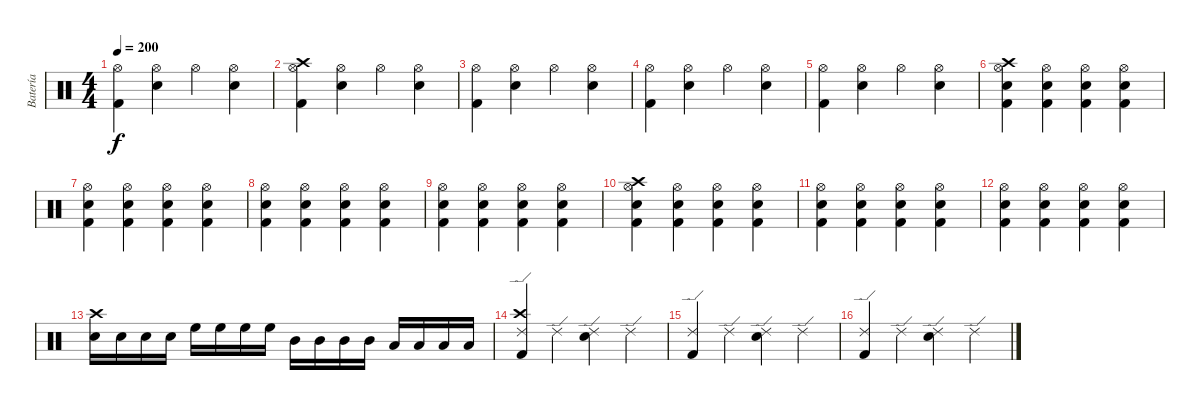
\track ("Batería" "Batería") {instrument percussion}
\staff {score}
\articulation defaults
\ts (4 4)
\tempo 200
\clef neutral
\ks c
("Hi-Hat (open)" "Kick (hit) 2").4{dy f} ("Hi-Hat (open)" "Electric Snare (hit)").4 "Hi-Hat (open)".4 ("Hi-Hat (open)" "Electric Snare (hit)").4 |
("Hi-Hat (open)" "Kick (hit) 2" "Crash high (hit)").4 ("Hi-Hat (open)" "Electric Snare (hit)").4 "Hi-Hat (open)".4 ("Hi-Hat (open)" "Electric Snare (hit)").4 |
("Hi-Hat (open)" "Kick (hit) 2").4 ("Hi-Hat (open)" "Electric Snare (hit)").4 "Hi-Hat (open)".4 ("Hi-Hat (open)" "Electric Snare (hit)").4 |
("Hi-Hat (open)" "Kick (hit) 2").4 ("Hi-Hat (open)" "Electric Snare (hit)").4 "Hi-Hat (open)".4 ("Hi-Hat (open)" "Electric Snare (hit)").4 |
("Hi-Hat (open)" "Kick (hit) 2").4 ("Hi-Hat (open)" "Electric Snare (hit)").4 "Hi-Hat (open)".4 ("Hi-Hat (open)" "Electric Snare (hit)").4 |
("Electric Snare (hit)" "Kick (hit) 2" "Hi-Hat (open)" "Crash high (hit)").4 ("Electric Snare (hit)" "Kick (hit) 2" "Hi-Hat (open)").4 ("Electric Snare (hit)" "Kick (hit) 2" "Hi-Hat (open)").4 ("Electric Snare (hit)" "Kick (hit) 2" "Hi-Hat (open)").4 |
("Electric Snare (hit)" "Kick (hit) 2" "Hi-Hat (open)").4 ("Electric Snare (hit)" "Kick (hit) 2" "Hi-Hat (open)").4 ("Electric Snare (hit)" "Kick (hit) 2" "Hi-Hat (open)").4 ("Electric Snare (hit)" "Kick (hit) 2" "Hi-Hat (open)").4 |
("Electric Snare (hit)" "Kick (hit) 2" "Hi-Hat (open)").4 ("Electric Snare (hit)" "Kick (hit) 2" "Hi-Hat (open)").4 ("Electric Snare (hit)" "Kick (hit) 2" "Hi-Hat (open)").4 ("Electric Snare (hit)" "Kick (hit) 2" "Hi-Hat (open)").4 |
("Electric Snare (hit)" "Kick (hit) 2" "Hi-Hat (open)").4 ("Electric Snare (hit)" "Kick (hit) 2" "Hi-Hat (open)").4 ("Electric Snare (hit)" "Kick (hit) 2" "Hi-Hat (open)").4 ("Electric Snare (hit)" "Kick (hit) 2" "Hi-Hat (open)").4 |
("Electric Snare (hit)" "Kick (hit) 2" "Hi-Hat (open)" "Crash high (hit)").4 ("Electric Snare (hit)" "Kick (hit) 2" "Hi-Hat (open)").4 ("Electric Snare (hit)" "Kick (hit) 2" "Hi-Hat (open)").4 ("Electric Snare (hit)" "Kick (hit) 2" "Hi-Hat (open)").4 |
("Electric Snare (hit)" "Kick (hit) 2" "Hi-Hat (open)").4 ("Electric Snare (hit)" "Kick (hit) 2" "Hi-Hat (open)").4 ("Electric Snare (hit)" "Kick (hit) 2" "Hi-Hat (open)").4 ("Electric Snare (hit)" "Kick (hit) 2" "Hi-Hat (open)").4 |
("Electric Snare (hit)" "Kick (hit) 2" "Hi-Hat (open)").4 ("Electric Snare (hit)" "Kick (hit) 2" "Hi-Hat (open)").4 ("Electric Snare (hit)" "Kick (hit) 2" "Hi-Hat (open)").4 ("Electric Snare (hit)" "Kick (hit) 2" "Hi-Hat (open)").4 |
("Electric Snare (hit)" "Crash high (hit)").16 "Electric Snare (hit)".16 "Electric Snare (hit)".16 "Electric Snare (hit)".16 "High Floor Tom (hit)".16 "High Floor Tom (hit)".16 "High Floor Tom (hit)".16 "High Floor Tom (hit)".16 "Mid Tom (hit)".16 "Mid Tom (hit)".16 "Mid Tom (hit)".16 "Mid Tom (hit)".16 "Low Tom (hit)".16 "Low Tom (hit)".16 "Low Tom (hit)".16 "Low Tom (hit)".16 |
("Ride (edge) 2" "Kick (hit) 2" "Crash high (hit)").4 "Ride (edge) 2".4 ("Ride (edge) 2" "Electric Snare (hit)").4 "Ride (edge) 2".4 |
("Ride (edge) 2" "Kick (hit) 2").4 "Ride (edge) 2".4 ("Ride (edge) 2" "Electric Snare (hit)").4 "Ride (edge) 2".4 |
("Ride (edge) 2" "Kick (hit) 2").4 "Ride (edge) 2".4 ("Ride (edge) 2" "Electric Snare (hit)").4 "Ride (edge) 2".4
